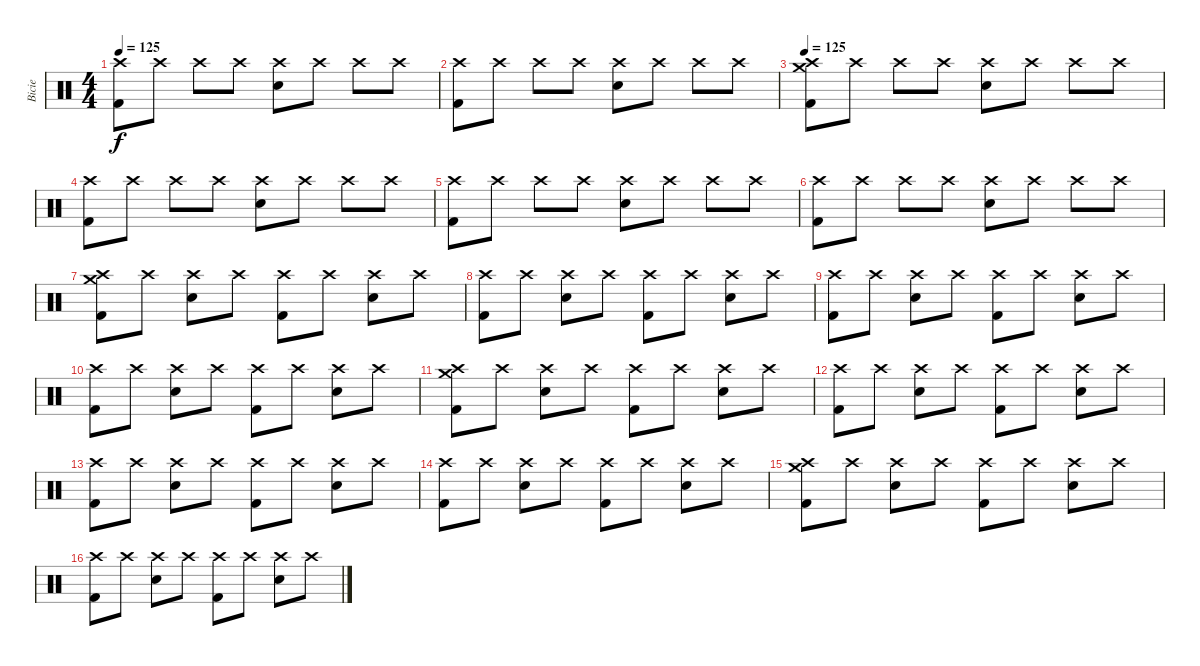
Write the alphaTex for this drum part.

\track ("Bicie" "Bicie") {instrument percussion}
\staff {score}
\articulation defaults
\ts (4 4)
\tempo 125
\clef neutral
\ks c
("Crash high (hit)" "Kick (hit) 2").8{dy f} "Crash high (hit)".8 "Crash high (hit)".8 "Crash high (hit)".8 ("Crash high (hit)" "Snare (hit) 2").8 "Crash high (hit)".8 "Crash high (hit)".8 "Crash high (hit)".8 |
("Crash high (hit)" "Kick (hit) 2").8 "Crash high (hit)".8 "Crash high (hit)".8 "Crash high (hit)".8 ("Crash high (hit)" "Snare (hit) 2").8 "Crash high (hit)".8 "Crash high (hit)".8 "Crash high (hit)".8 |
\tempo 125
("Crash medium (hit)" "Crash high (hit)" "Kick (hit) 2").8 "Crash high (hit)".8 "Crash high (hit)".8 "Crash high (hit)".8 ("Crash high (hit)" "Snare (hit) 2").8 "Crash high (hit)".8 "Crash high (hit)".8 "Crash high (hit)".8 |
("Crash high (hit)" "Kick (hit) 2").8 "Crash high (hit)".8 "Crash high (hit)".8 "Crash high (hit)".8 ("Crash high (hit)" "Snare (hit) 2").8 "Crash high (hit)".8 "Crash high (hit)".8 "Crash high (hit)".8 |
("Crash high (hit)" "Kick (hit) 2").8 "Crash high (hit)".8 "Crash high (hit)".8 "Crash high (hit)".8 ("Crash high (hit)" "Snare (hit) 2").8 "Crash high (hit)".8 "Crash high (hit)".8 "Crash high (hit)".8 |
("Crash high (hit)" "Kick (hit) 2").8 "Crash high (hit)".8 "Crash high (hit)".8 "Crash high (hit)".8 ("Crash high (hit)" "Snare (hit) 2").8 "Crash high (hit)".8 "Crash high (hit)".8 "Crash high (hit)".8 |
("Crash medium (hit)" "Crash high (hit)" "Kick (hit) 2").8 "Crash high (hit)".8 ("Crash high (hit)" "Snare (hit) 2").8 "Crash high (hit)".8 ("Crash high (hit)" "Kick (hit) 2").8 "Crash high (hit)".8 ("Crash high (hit)" "Snare (hit) 2").8 "Crash high (hit)".8 |
("Crash high (hit)" "Kick (hit) 2").8 "Crash high (hit)".8 ("Crash high (hit)" "Snare (hit) 2").8 "Crash high (hit)".8 ("Crash high (hit)" "Kick (hit) 2").8 "Crash high (hit)".8 ("Crash high (hit)" "Snare (hit) 2").8 "Crash high (hit)".8 |
("Crash high (hit)" "Kick (hit) 2").8 "Crash high (hit)".8 ("Crash high (hit)" "Snare (hit) 2").8 "Crash high (hit)".8 ("Crash high (hit)" "Kick (hit) 2").8 "Crash high (hit)".8 ("Crash high (hit)" "Snare (hit) 2").8 "Crash high (hit)".8 |
("Crash high (hit)" "Kick (hit) 2").8 "Crash high (hit)".8 ("Crash high (hit)" "Snare (hit) 2").8 "Crash high (hit)".8 ("Crash high (hit)" "Kick (hit) 2").8 "Crash high (hit)".8 ("Crash high (hit)" "Snare (hit) 2").8 "Crash high (hit)".8 |
("Crash medium (hit)" "Crash high (hit)" "Kick (hit) 2").8 "Crash high (hit)".8 ("Crash high (hit)" "Snare (hit) 2").8 "Crash high (hit)".8 ("Crash high (hit)" "Kick (hit) 2").8 "Crash high (hit)".8 ("Crash high (hit)" "Snare (hit) 2").8 "Crash high (hit)".8 |
("Crash high (hit)" "Kick (hit) 2").8 "Crash high (hit)".8 ("Crash high (hit)" "Snare (hit) 2").8 "Crash high (hit)".8 ("Crash high (hit)" "Kick (hit) 2").8 "Crash high (hit)".8 ("Crash high (hit)" "Snare (hit) 2").8 "Crash high (hit)".8 |
("Crash high (hit)" "Kick (hit) 2").8 "Crash high (hit)".8 ("Crash high (hit)" "Snare (hit) 2").8 "Crash high (hit)".8 ("Crash high (hit)" "Kick (hit) 2").8 "Crash high (hit)".8 ("Crash high (hit)" "Snare (hit) 2").8 "Crash high (hit)".8 |
("Crash high (hit)" "Kick (hit) 2").8 "Crash high (hit)".8 ("Crash high (hit)" "Snare (hit) 2").8 "Crash high (hit)".8 ("Crash high (hit)" "Kick (hit) 2").8 "Crash high (hit)".8 ("Crash high (hit)" "Snare (hit) 2").8 "Crash high (hit)".8 |
("Crash medium (hit)" "Crash high (hit)" "Kick (hit) 2").8 "Crash high (hit)".8 ("Crash high (hit)" "Snare (hit) 2").8 "Crash high (hit)".8 ("Crash high (hit)" "Kick (hit) 2").8 "Crash high (hit)".8 ("Crash high (hit)" "Snare (hit) 2").8 "Crash high (hit)".8 |
("Crash high (hit)" "Kick (hit) 2").8 "Crash high (hit)".8 ("Crash high (hit)" "Snare (hit) 2").8 "Crash high (hit)".8 ("Crash high (hit)" "Kick (hit) 2").8 "Crash high (hit)".8 ("Crash high (hit)" "Snare (hit) 2").8 "Crash high (hit)".8
